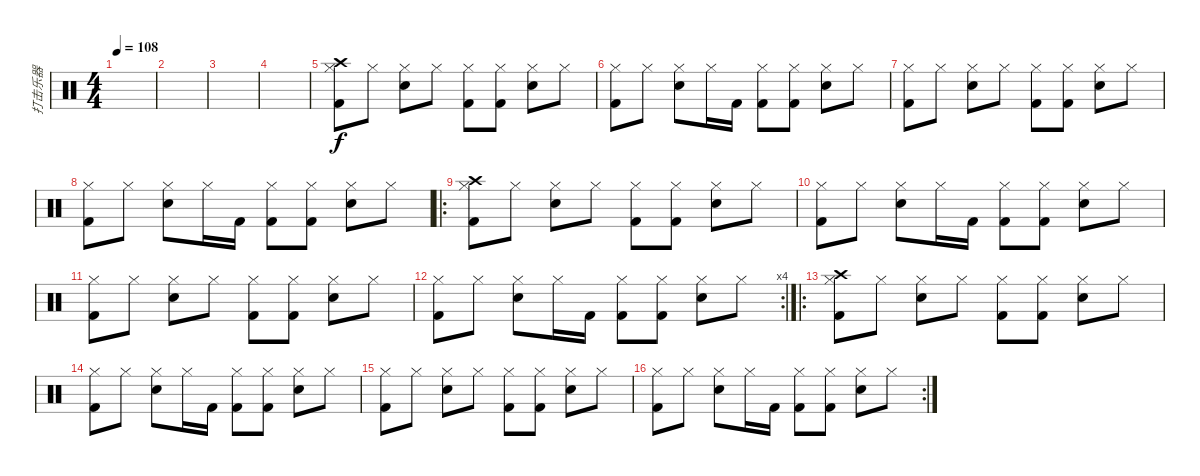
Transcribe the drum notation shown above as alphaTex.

\track ("打击乐器" "打击乐器") {instrument percussion}
\staff {score}
\articulation defaults
\ts (4 4)
\tempo 108
\clef neutral
\ks c
|
|
|
|
("Hi-Hat (closed)" "Kick (hit) 2" "Crash high (hit)").8 "Hi-Hat (closed)".8 ("Hi-Hat (closed)" "Snare (hit) 2").8 "Hi-Hat (closed)".8 ("Hi-Hat (closed)" "Kick (hit) 2").8 ("Hi-Hat (closed)" "Kick (hit) 2").8 ("Hi-Hat (closed)" "Snare (hit) 2").8 "Hi-Hat (closed)".8 |
("Hi-Hat (closed)" "Kick (hit) 2").8 "Hi-Hat (closed)".8 ("Hi-Hat (closed)" "Snare (hit) 2").8 "Hi-Hat (closed)".16 "Kick (hit) 2".16 ("Hi-Hat (closed)" "Kick (hit) 2").8 ("Hi-Hat (closed)" "Kick (hit) 2").8 ("Hi-Hat (closed)" "Snare (hit) 2").8 "Hi-Hat (closed)".8 |
("Hi-Hat (closed)" "Kick (hit) 2").8 "Hi-Hat (closed)".8 ("Hi-Hat (closed)" "Snare (hit) 2").8 "Hi-Hat (closed)".8 ("Hi-Hat (closed)" "Kick (hit) 2").8 ("Hi-Hat (closed)" "Kick (hit) 2").8 ("Hi-Hat (closed)" "Snare (hit) 2").8 "Hi-Hat (closed)".8 |
("Hi-Hat (closed)" "Kick (hit) 2").8 "Hi-Hat (closed)".8 ("Hi-Hat (closed)" "Snare (hit) 2").8 "Hi-Hat (closed)".16 "Kick (hit) 2".16 ("Hi-Hat (closed)" "Kick (hit) 2").8 ("Hi-Hat (closed)" "Kick (hit) 2").8 ("Hi-Hat (closed)" "Snare (hit) 2").8 "Hi-Hat (closed)".8 |
\ro
("Hi-Hat (closed)" "Kick (hit) 2" "Crash high (hit)").8 "Hi-Hat (closed)".8 ("Hi-Hat (closed)" "Snare (hit) 2").8 "Hi-Hat (closed)".8 ("Hi-Hat (closed)" "Kick (hit) 2").8 ("Hi-Hat (closed)" "Kick (hit) 2").8 ("Hi-Hat (closed)" "Snare (hit) 2").8 "Hi-Hat (closed)".8 |
("Hi-Hat (closed)" "Kick (hit) 2").8 "Hi-Hat (closed)".8 ("Hi-Hat (closed)" "Snare (hit) 2").8 "Hi-Hat (closed)".16 "Kick (hit) 2".16 ("Hi-Hat (closed)" "Kick (hit) 2").8 ("Hi-Hat (closed)" "Kick (hit) 2").8 ("Hi-Hat (closed)" "Snare (hit) 2").8 "Hi-Hat (closed)".8 |
("Hi-Hat (closed)" "Kick (hit) 2").8 "Hi-Hat (closed)".8 ("Hi-Hat (closed)" "Snare (hit) 2").8 "Hi-Hat (closed)".8 ("Hi-Hat (closed)" "Kick (hit) 2").8 ("Hi-Hat (closed)" "Kick (hit) 2").8 ("Hi-Hat (closed)" "Snare (hit) 2").8 "Hi-Hat (closed)".8 |
\rc 4
("Hi-Hat (closed)" "Kick (hit) 2").8 "Hi-Hat (closed)".8 ("Hi-Hat (closed)" "Snare (hit) 2").8 "Hi-Hat (closed)".16 "Kick (hit) 2".16 ("Hi-Hat (closed)" "Kick (hit) 2").8 ("Hi-Hat (closed)" "Kick (hit) 2").8 ("Hi-Hat (closed)" "Snare (hit) 2").8 "Hi-Hat (closed)".8 |
\ro
("Hi-Hat (closed)" "Kick (hit) 2" "Crash high (hit)").8 "Hi-Hat (closed)".8 ("Hi-Hat (closed)" "Snare (hit) 2").8 "Hi-Hat (closed)".8 ("Hi-Hat (closed)" "Kick (hit) 2").8 ("Hi-Hat (closed)" "Kick (hit) 2").8 ("Hi-Hat (closed)" "Snare (hit) 2").8 "Hi-Hat (closed)".8 |
("Hi-Hat (closed)" "Kick (hit) 2").8 "Hi-Hat (closed)".8 ("Hi-Hat (closed)" "Snare (hit) 2").8 "Hi-Hat (closed)".16 "Kick (hit) 2".16 ("Hi-Hat (closed)" "Kick (hit) 2").8 ("Hi-Hat (closed)" "Kick (hit) 2").8 ("Hi-Hat (closed)" "Snare (hit) 2").8 "Hi-Hat (closed)".8 |
("Hi-Hat (closed)" "Kick (hit) 2").8 "Hi-Hat (closed)".8 ("Hi-Hat (closed)" "Snare (hit) 2").8 "Hi-Hat (closed)".8 ("Hi-Hat (closed)" "Kick (hit) 2").8 ("Hi-Hat (closed)" "Kick (hit) 2").8 ("Hi-Hat (closed)" "Snare (hit) 2").8 "Hi-Hat (closed)".8 |
\rc 2
("Hi-Hat (closed)" "Kick (hit) 2").8 "Hi-Hat (closed)".8 ("Hi-Hat (closed)" "Snare (hit) 2").8 "Hi-Hat (closed)".16 "Kick (hit) 2".16 ("Hi-Hat (closed)" "Kick (hit) 2").8 ("Hi-Hat (closed)" "Kick (hit) 2").8 ("Hi-Hat (closed)" "Snare (hit) 2").8 "Hi-Hat (closed)".8
